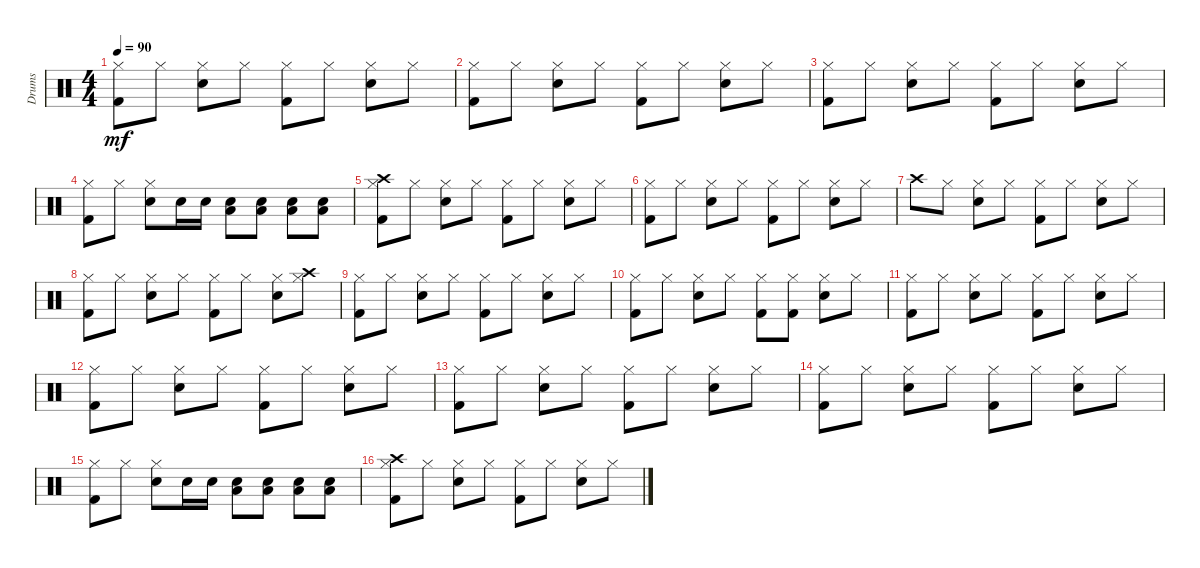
\track ("Drums" "Drums") {instrument percussion}
\staff {score}
\articulation defaults
\ts (4 4)
\tempo 90
\clef neutral
\ks c
("Hi-Hat (closed)" "Kick (hit) 2").8{dy mf} "Hi-Hat (closed)".8 ("Hi-Hat (closed)" "Snare (hit) 2").8 "Hi-Hat (closed)".8 ("Hi-Hat (closed)" "Kick (hit) 2").8 "Hi-Hat (closed)".8 ("Hi-Hat (closed)" "Snare (hit) 2").8 "Hi-Hat (closed)".8 |
("Hi-Hat (closed)" "Kick (hit) 2").8 "Hi-Hat (closed)".8 ("Hi-Hat (closed)" "Snare (hit) 2").8 "Hi-Hat (closed)".8 ("Hi-Hat (closed)" "Kick (hit) 2").8 "Hi-Hat (closed)".8 ("Hi-Hat (closed)" "Snare (hit) 2").8 "Hi-Hat (closed)".8 |
("Hi-Hat (closed)" "Kick (hit) 2").8 "Hi-Hat (closed)".8 ("Hi-Hat (closed)" "Snare (hit) 2").8 "Hi-Hat (closed)".8 ("Hi-Hat (closed)" "Kick (hit) 2").8 "Hi-Hat (closed)".8 ("Hi-Hat (closed)" "Snare (hit) 2").8 "Hi-Hat (closed)".8 |
("Hi-Hat (closed)" "Kick (hit) 2").8 "Hi-Hat (closed)".8 ("Hi-Hat (closed)" "Snare (hit) 2").8 "Snare (hit) 2".16 "Snare (hit) 2".16 ("Snare (hit) 2" "Low Floor Tom (hit)").8 ("Snare (hit) 2" "Low Floor Tom (hit)").8 ("Snare (hit) 2" "Low Floor Tom (hit)").8 ("Snare (hit) 2" "Low Floor Tom (hit)").8 |
("Hi-Hat (closed)" "Crash high (hit)" "Kick (hit) 2").8 "Hi-Hat (closed)".8 ("Hi-Hat (closed)" "Snare (hit) 2").8 "Hi-Hat (closed)".8 ("Hi-Hat (closed)" "Kick (hit) 2").8 "Hi-Hat (closed)".8 ("Hi-Hat (closed)" "Snare (hit) 2").8 "Hi-Hat (closed)".8 |
("Hi-Hat (closed)" "Kick (hit) 2").8 "Hi-Hat (closed)".8 ("Hi-Hat (closed)" "Snare (hit) 2").8 "Hi-Hat (closed)".8 ("Hi-Hat (closed)" "Kick (hit) 2").8 "Hi-Hat (closed)".8 ("Hi-Hat (closed)" "Snare (hit) 2").8 "Hi-Hat (closed)".8 |
"Crash high (hit)".8 "Hi-Hat (closed)".8 ("Hi-Hat (closed)" "Snare (hit) 2").8 "Hi-Hat (closed)".8 ("Hi-Hat (closed)" "Kick (hit) 2").8 "Hi-Hat (closed)".8 ("Hi-Hat (closed)" "Snare (hit) 2").8 "Hi-Hat (closed)".8 |
("Hi-Hat (closed)" "Kick (hit) 2").8 "Hi-Hat (closed)".8 ("Hi-Hat (closed)" "Snare (hit) 2").8 "Hi-Hat (closed)".8 ("Hi-Hat (closed)" "Kick (hit) 2").8 "Hi-Hat (closed)".8 ("Hi-Hat (closed)" "Snare (hit) 2").8 ("Hi-Hat (closed)" "Crash high (hit)").8 |
("Hi-Hat (closed)" "Kick (hit) 2").8 "Hi-Hat (closed)".8 ("Hi-Hat (closed)" "Snare (hit) 2").8 "Hi-Hat (closed)".8 ("Hi-Hat (closed)" "Kick (hit) 2").8 "Hi-Hat (closed)".8 ("Hi-Hat (closed)" "Snare (hit) 2").8 "Hi-Hat (closed)".8 |
("Hi-Hat (closed)" "Kick (hit) 2").8 "Hi-Hat (closed)".8 ("Hi-Hat (closed)" "Snare (hit) 2").8 "Hi-Hat (closed)".8 ("Hi-Hat (closed)" "Kick (hit) 2").8 ("Hi-Hat (closed)" "Kick (hit) 2").8 ("Hi-Hat (closed)" "Snare (hit) 2").8 "Hi-Hat (closed)".8 |
("Hi-Hat (closed)" "Kick (hit) 2").8 "Hi-Hat (closed)".8 ("Hi-Hat (closed)" "Snare (hit) 2").8 "Hi-Hat (closed)".8 ("Hi-Hat (closed)" "Kick (hit) 2").8 "Hi-Hat (closed)".8 ("Hi-Hat (closed)" "Snare (hit) 2").8 "Hi-Hat (closed)".8 |
("Hi-Hat (closed)" "Kick (hit) 2").8 "Hi-Hat (closed)".8 ("Hi-Hat (closed)" "Snare (hit) 2").8 "Hi-Hat (closed)".8 ("Hi-Hat (closed)" "Kick (hit) 2").8 "Hi-Hat (closed)".8 ("Hi-Hat (closed)" "Snare (hit) 2").8 "Hi-Hat (closed)".8 |
("Hi-Hat (closed)" "Kick (hit) 2").8 "Hi-Hat (closed)".8 ("Hi-Hat (closed)" "Snare (hit) 2").8 "Hi-Hat (closed)".8 ("Hi-Hat (closed)" "Kick (hit) 2").8 "Hi-Hat (closed)".8 ("Hi-Hat (closed)" "Snare (hit) 2").8 "Hi-Hat (closed)".8 |
("Hi-Hat (closed)" "Kick (hit) 2").8 "Hi-Hat (closed)".8 ("Hi-Hat (closed)" "Snare (hit) 2").8 "Hi-Hat (closed)".8 ("Hi-Hat (closed)" "Kick (hit) 2").8 "Hi-Hat (closed)".8 ("Hi-Hat (closed)" "Snare (hit) 2").8 "Hi-Hat (closed)".8 |
("Hi-Hat (closed)" "Kick (hit) 2").8 "Hi-Hat (closed)".8 ("Hi-Hat (closed)" "Snare (hit) 2").8 "Snare (hit) 2".16 "Snare (hit) 2".16 ("Snare (hit) 2" "Low Floor Tom (hit)").8 ("Snare (hit) 2" "Low Floor Tom (hit)").8 ("Snare (hit) 2" "Low Floor Tom (hit)").8 ("Snare (hit) 2" "Low Floor Tom (hit)").8 |
("Hi-Hat (closed)" "Crash high (hit)" "Kick (hit) 2").8 "Hi-Hat (closed)".8 ("Hi-Hat (closed)" "Snare (hit) 2").8 "Hi-Hat (closed)".8 ("Hi-Hat (closed)" "Kick (hit) 2").8 "Hi-Hat (closed)".8 ("Hi-Hat (closed)" "Snare (hit) 2").8 "Hi-Hat (closed)".8
